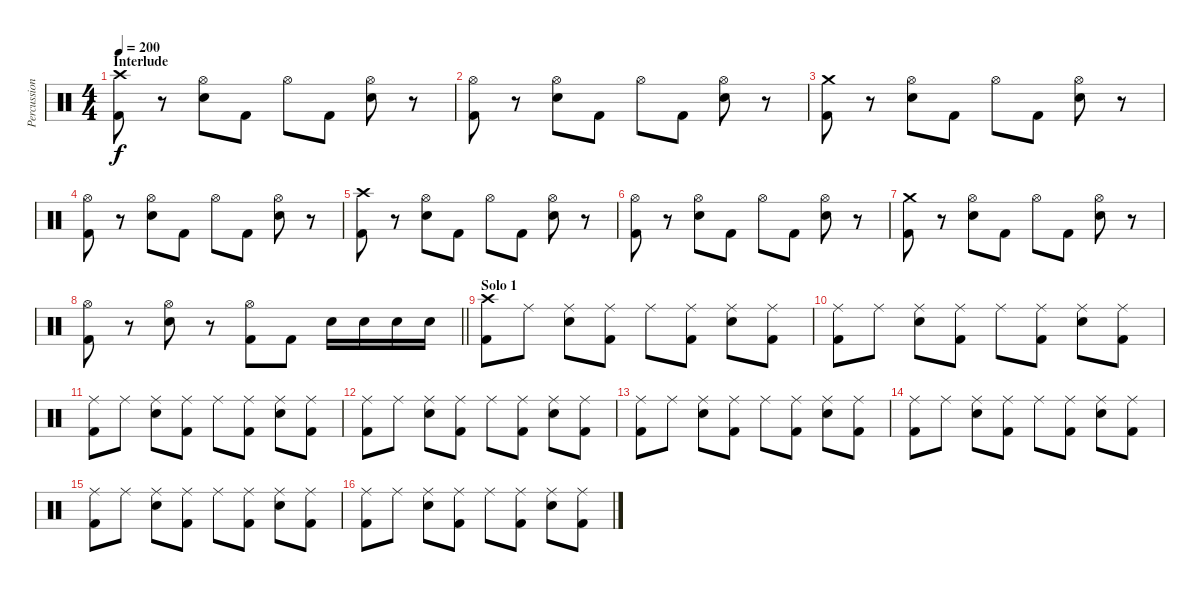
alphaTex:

\track ("Percussion" "Percussion") {instrument percussion}
\staff {score}
\articulation defaults
\ts (4 4)
\section ("" "Interlude")
\tempo 200
\clef neutral
\ks c
("Crash high (hit)" "Kick (hit) 2").8{dy f} r.8 ("Hi-Hat (open)" "Snare (hit) 2").8 "Kick (hit) 2".8 "Hi-Hat (open)".8 "Kick (hit) 2".8 ("Hi-Hat (open)" "Snare (hit) 2").8 r.8 |
("Hi-Hat (open)" "Kick (hit) 2").8 r.8 ("Hi-Hat (open)" "Snare (hit) 2").8 "Kick (hit) 2".8 "Hi-Hat (open)".8 "Kick (hit) 2".8 ("Hi-Hat (open)" "Snare (hit) 2").8 r.8 |
("Crash medium (hit)" "Kick (hit) 2").8 r.8 ("Hi-Hat (open)" "Snare (hit) 2").8 "Kick (hit) 2".8 "Hi-Hat (open)".8 "Kick (hit) 2".8 ("Hi-Hat (open)" "Snare (hit) 2").8 r.8 |
("Hi-Hat (open)" "Kick (hit) 2").8 r.8 ("Hi-Hat (open)" "Snare (hit) 2").8 "Kick (hit) 2".8 "Hi-Hat (open)".8 "Kick (hit) 2".8 ("Hi-Hat (open)" "Snare (hit) 2").8 r.8 |
("Crash high (hit)" "Kick (hit) 2").8 r.8 ("Hi-Hat (open)" "Snare (hit) 2").8 "Kick (hit) 2".8 "Hi-Hat (open)".8 "Kick (hit) 2".8 ("Hi-Hat (open)" "Snare (hit) 2").8 r.8 |
("Hi-Hat (open)" "Kick (hit) 2").8 r.8 ("Hi-Hat (open)" "Snare (hit) 2").8 "Kick (hit) 2".8 "Hi-Hat (open)".8 "Kick (hit) 2".8 ("Hi-Hat (open)" "Snare (hit) 2").8 r.8 |
("Crash medium (hit)" "Kick (hit) 2").8 r.8 ("Hi-Hat (open)" "Snare (hit) 2").8 "Kick (hit) 2".8 "Hi-Hat (open)".8 "Kick (hit) 2".8 ("Hi-Hat (open)" "Snare (hit) 2").8 r.8 |
\barLineRight lightlight
("Hi-Hat (open)" "Kick (hit) 2").8 r.8 ("Hi-Hat (open)" "Snare (hit) 2").8 r.8 ("Hi-Hat (open)" "Kick (hit) 2").8 "Kick (hit) 2".8 "Snare (hit) 2".16 "Snare (hit) 2".16 "Snare (hit) 2".16 "Snare (hit) 2".16 |
\section ("" "Solo 1")
("Crash high (hit)" "Kick (hit) 2").8 "Ride (middle)".8 ("Ride (middle)" "Snare (hit) 2").8 ("Ride (middle)" "Kick (hit) 2").8 "Ride (middle)".8 ("Ride (middle)" "Kick (hit) 2").8 ("Ride (middle)" "Snare (hit) 2").8 ("Ride (middle)" "Kick (hit) 2").8 |
("Ride (middle)" "Kick (hit) 2").8 "Ride (middle)".8 ("Ride (middle)" "Snare (hit) 2").8 ("Ride (middle)" "Kick (hit) 2").8 "Ride (middle)".8 ("Ride (middle)" "Kick (hit) 2").8 ("Ride (middle)" "Snare (hit) 2").8 ("Ride (middle)" "Kick (hit) 2").8 |
("Ride (middle)" "Kick (hit) 2").8 "Ride (middle)".8 ("Ride (middle)" "Snare (hit) 2").8 ("Ride (middle)" "Kick (hit) 2").8 "Ride (middle)".8 ("Ride (middle)" "Kick (hit) 2").8 ("Ride (middle)" "Snare (hit) 2").8 ("Ride (middle)" "Kick (hit) 2").8 |
("Ride (middle)" "Kick (hit) 2").8 "Ride (middle)".8 ("Ride (middle)" "Snare (hit) 2").8 ("Ride (middle)" "Kick (hit) 2").8 "Ride (middle)".8 ("Ride (middle)" "Kick (hit) 2").8 ("Ride (middle)" "Snare (hit) 2").8 ("Ride (middle)" "Kick (hit) 2").8 |
("Ride (middle)" "Kick (hit) 2").8 "Ride (middle)".8 ("Ride (middle)" "Snare (hit) 2").8 ("Ride (middle)" "Kick (hit) 2").8 "Ride (middle)".8 ("Ride (middle)" "Kick (hit) 2").8 ("Ride (middle)" "Snare (hit) 2").8 ("Ride (middle)" "Kick (hit) 2").8 |
("Ride (middle)" "Kick (hit) 2").8 "Ride (middle)".8 ("Ride (middle)" "Snare (hit) 2").8 ("Ride (middle)" "Kick (hit) 2").8 "Ride (middle)".8 ("Ride (middle)" "Kick (hit) 2").8 ("Ride (middle)" "Snare (hit) 2").8 ("Ride (middle)" "Kick (hit) 2").8 |
("Ride (middle)" "Kick (hit) 2").8 "Ride (middle)".8 ("Ride (middle)" "Snare (hit) 2").8 ("Ride (middle)" "Kick (hit) 2").8 "Ride (middle)".8 ("Ride (middle)" "Kick (hit) 2").8 ("Ride (middle)" "Snare (hit) 2").8 ("Ride (middle)" "Kick (hit) 2").8 |
("Ride (middle)" "Kick (hit) 2").8 "Ride (middle)".8 ("Ride (middle)" "Snare (hit) 2").8 ("Ride (middle)" "Kick (hit) 2").8 "Ride (middle)".8 ("Ride (middle)" "Kick (hit) 2").8 ("Ride (middle)" "Snare (hit) 2").8 ("Ride (middle)" "Kick (hit) 2").8
